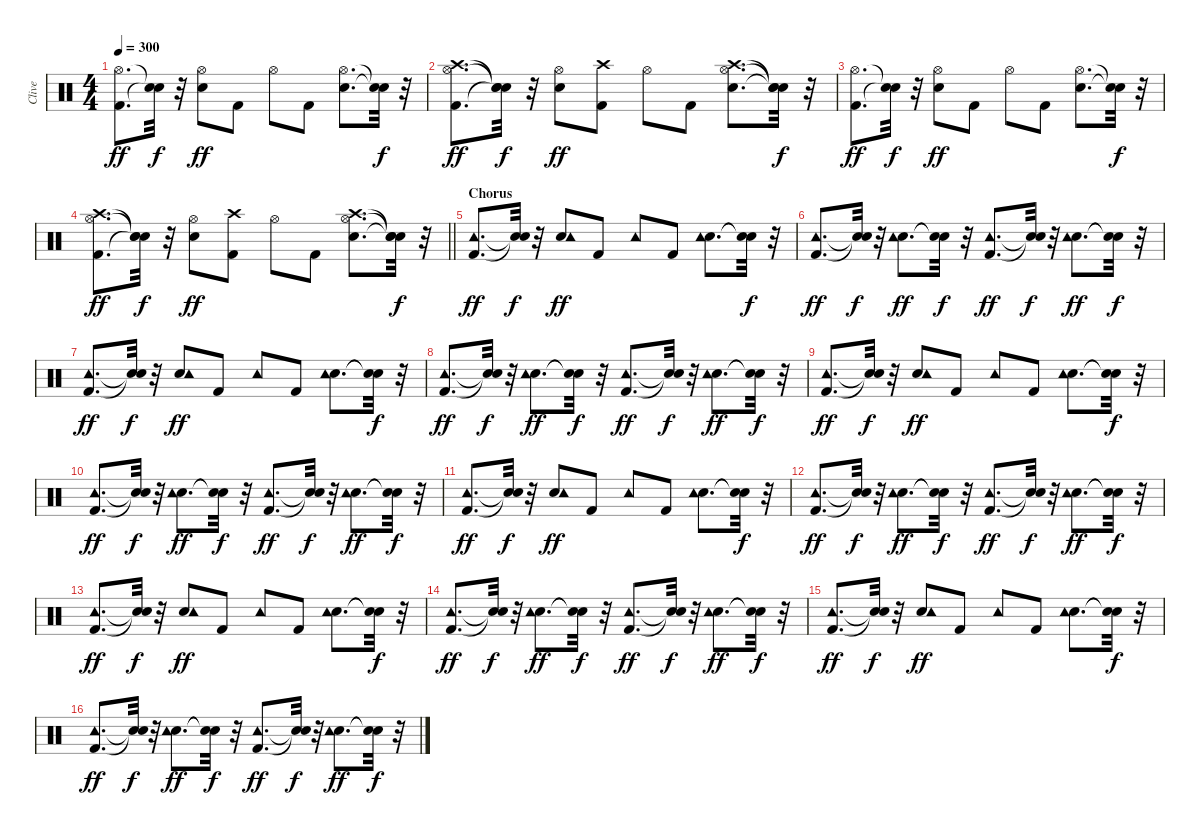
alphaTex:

\track ("Clive" "Clive") {instrument percussion}
\staff {score}
\articulation defaults
\ts (4 4)
\tempo 300
\clef neutral
\ks c
("Kick (hit) 2" "Hi-Hat (open)").8{d dy ff} ("Snare (hit)"{t} "Snare (hit)"{t}).32{dy f} r.32 ("Snare (hit) 2" "Hi-Hat (open)").8{dy ff} "Kick (hit) 2".8 "Hi-Hat (open)".8 "Kick (hit) 2".8 ("Snare (hit) 2" "Hi-Hat (open)").8{d} ("Snare (hit)"{t} "Snare (hit)"{t}).32{dy f} r.32 |
("Kick (hit) 2" "Hi-Hat (open)" "Crash high (hit)").8{d dy ff} ("Snare (hit)"{t} "Snare (hit)"{t} "Snare (hit)"{t}).32{dy f} r.32 ("Snare (hit) 2" "Hi-Hat (open)").8{dy ff} ("Kick (hit) 2" "Crash high (hit)").8 "Hi-Hat (open)".8 "Kick (hit) 2".8 ("Snare (hit) 2" "Hi-Hat (open)" "Crash high (hit)").8{d} ("Snare (hit)"{t} "Snare (hit)"{t} "Snare (hit)"{t}).32{dy f} r.32 |
("Kick (hit) 2" "Hi-Hat (open)").8{d dy ff} ("Snare (hit)"{t} "Snare (hit)"{t}).32{dy f} r.32 ("Snare (hit) 2" "Hi-Hat (open)").8{dy ff} "Kick (hit) 2".8 "Hi-Hat (open)".8 "Kick (hit) 2".8 ("Snare (hit) 2" "Hi-Hat (open)").8{d} ("Snare (hit)"{t} "Snare (hit)"{t}).32{dy f} r.32 |
\barLineRight lightlight
("Kick (hit) 2" "Hi-Hat (open)" "Crash high (hit)").8{d dy ff} ("Snare (hit)"{t} "Snare (hit)"{t} "Snare (hit)"{t}).32{dy f} r.32 ("Snare (hit) 2" "Hi-Hat (open)").8{dy ff} ("Kick (hit) 2" "Crash high (hit)").8 "Hi-Hat (open)".8 "Kick (hit) 2".8 ("Snare (hit) 2" "Hi-Hat (open)" "Crash high (hit)").8{d} ("Snare (hit)"{t} "Snare (hit)"{t} "Snare (hit)"{t}).32{dy f} r.32 |
\section ("" "Chorus")
("Kick (hit) 2" "Tambourine (hit)").8{d dy ff} ("Snare (hit)"{t} "Snare (hit)"{t}).32{dy f} r.32 ("Snare (hit) 2" "Tambourine (hit)").8{dy ff} "Kick (hit) 2".8 "Tambourine (hit)".8 "Kick (hit) 2".8 ("Snare (hit) 2" "Tambourine (hit)").8{d} ("Snare (hit)"{t} "Snare (hit)"{t}).32{dy f} r.32 |
("Kick (hit) 2" "Tambourine (hit)").8{d dy ff} ("Snare (hit)"{t} "Snare (hit)"{t}).32{dy f} r.32 ("Snare (hit) 2" "Tambourine (hit)").8{d dy ff} ("Snare (hit)"{t} "Snare (hit)"{t}).32{dy f} r.32 ("Kick (hit) 2" "Tambourine (hit)").8{d dy ff} ("Snare (hit)"{t} "Snare (hit)"{t}).32{dy f} r.32 ("Snare (hit) 2" "Tambourine (hit)").8{d dy ff} ("Snare (hit)"{t} "Snare (hit)"{t}).32{dy f} r.32 |
("Kick (hit) 2" "Tambourine (hit)").8{d dy ff} ("Snare (hit)"{t} "Snare (hit)"{t}).32{dy f} r.32 ("Snare (hit) 2" "Tambourine (hit)").8{dy ff} "Kick (hit) 2".8 "Tambourine (hit)".8 "Kick (hit) 2".8 ("Snare (hit) 2" "Tambourine (hit)").8{d} ("Snare (hit)"{t} "Snare (hit)"{t}).32{dy f} r.32 |
("Kick (hit) 2" "Tambourine (hit)").8{d dy ff} ("Snare (hit)"{t} "Snare (hit)"{t}).32{dy f} r.32 ("Snare (hit) 2" "Tambourine (hit)").8{d dy ff} ("Snare (hit)"{t} "Snare (hit)"{t}).32{dy f} r.32 ("Kick (hit) 2" "Tambourine (hit)").8{d dy ff} ("Snare (hit)"{t} "Snare (hit)"{t}).32{dy f} r.32 ("Snare (hit) 2" "Tambourine (hit)").8{d dy ff} ("Snare (hit)"{t} "Snare (hit)"{t}).32{dy f} r.32 |
("Kick (hit) 2" "Tambourine (hit)").8{d dy ff} ("Snare (hit)"{t} "Snare (hit)"{t}).32{dy f} r.32 ("Snare (hit) 2" "Tambourine (hit)").8{dy ff} "Kick (hit) 2".8 "Tambourine (hit)".8 "Kick (hit) 2".8 ("Snare (hit) 2" "Tambourine (hit)").8{d} ("Snare (hit)"{t} "Snare (hit)"{t}).32{dy f} r.32 |
("Kick (hit) 2" "Tambourine (hit)").8{d dy ff} ("Snare (hit)"{t} "Snare (hit)"{t}).32{dy f} r.32 ("Snare (hit) 2" "Tambourine (hit)").8{d dy ff} ("Snare (hit)"{t} "Snare (hit)"{t}).32{dy f} r.32 ("Kick (hit) 2" "Tambourine (hit)").8{d dy ff} ("Snare (hit)"{t} "Snare (hit)"{t}).32{dy f} r.32 ("Snare (hit) 2" "Tambourine (hit)").8{d dy ff} ("Snare (hit)"{t} "Snare (hit)"{t}).32{dy f} r.32 |
("Kick (hit) 2" "Tambourine (hit)").8{d dy ff} ("Snare (hit)"{t} "Snare (hit)"{t}).32{dy f} r.32 ("Snare (hit) 2" "Tambourine (hit)").8{dy ff} "Kick (hit) 2".8 "Tambourine (hit)".8 "Kick (hit) 2".8 ("Snare (hit) 2" "Tambourine (hit)").8{d} ("Snare (hit)"{t} "Snare (hit)"{t}).32{dy f} r.32 |
("Kick (hit) 2" "Tambourine (hit)").8{d dy ff} ("Snare (hit)"{t} "Snare (hit)"{t}).32{dy f} r.32 ("Snare (hit) 2" "Tambourine (hit)").8{d dy ff} ("Snare (hit)"{t} "Snare (hit)"{t}).32{dy f} r.32 ("Kick (hit) 2" "Tambourine (hit)").8{d dy ff} ("Snare (hit)"{t} "Snare (hit)"{t}).32{dy f} r.32 ("Snare (hit) 2" "Tambourine (hit)").8{d dy ff} ("Snare (hit)"{t} "Snare (hit)"{t}).32{dy f} r.32 |
("Kick (hit) 2" "Tambourine (hit)").8{d dy ff} ("Snare (hit)"{t} "Snare (hit)"{t}).32{dy f} r.32 ("Snare (hit) 2" "Tambourine (hit)").8{dy ff} "Kick (hit) 2".8 "Tambourine (hit)".8 "Kick (hit) 2".8 ("Snare (hit) 2" "Tambourine (hit)").8{d} ("Snare (hit)"{t} "Snare (hit)"{t}).32{dy f} r.32 |
("Kick (hit) 2" "Tambourine (hit)").8{d dy ff} ("Snare (hit)"{t} "Snare (hit)"{t}).32{dy f} r.32 ("Snare (hit) 2" "Tambourine (hit)").8{d dy ff} ("Snare (hit)"{t} "Snare (hit)"{t}).32{dy f} r.32 ("Kick (hit) 2" "Tambourine (hit)").8{d dy ff} ("Snare (hit)"{t} "Snare (hit)"{t}).32{dy f} r.32 ("Snare (hit) 2" "Tambourine (hit)").8{d dy ff} ("Snare (hit)"{t} "Snare (hit)"{t}).32{dy f} r.32 |
("Kick (hit) 2" "Tambourine (hit)").8{d dy ff} ("Snare (hit)"{t} "Snare (hit)"{t}).32{dy f} r.32 ("Snare (hit) 2" "Tambourine (hit)").8{dy ff} "Kick (hit) 2".8 "Tambourine (hit)".8 "Kick (hit) 2".8 ("Snare (hit) 2" "Tambourine (hit)").8{d} ("Snare (hit)"{t} "Snare (hit)"{t}).32{dy f} r.32 |
("Kick (hit) 2" "Tambourine (hit)").8{d dy ff} ("Snare (hit)"{t} "Snare (hit)"{t}).32{dy f} r.32 ("Snare (hit) 2" "Tambourine (hit)").8{d dy ff} ("Snare (hit)"{t} "Snare (hit)"{t}).32{dy f} r.32 ("Kick (hit) 2" "Tambourine (hit)").8{d dy ff} ("Snare (hit)"{t} "Snare (hit)"{t}).32{dy f} r.32 ("Snare (hit) 2" "Tambourine (hit)").8{d dy ff} ("Snare (hit)"{t} "Snare (hit)"{t}).32{dy f} r.32
